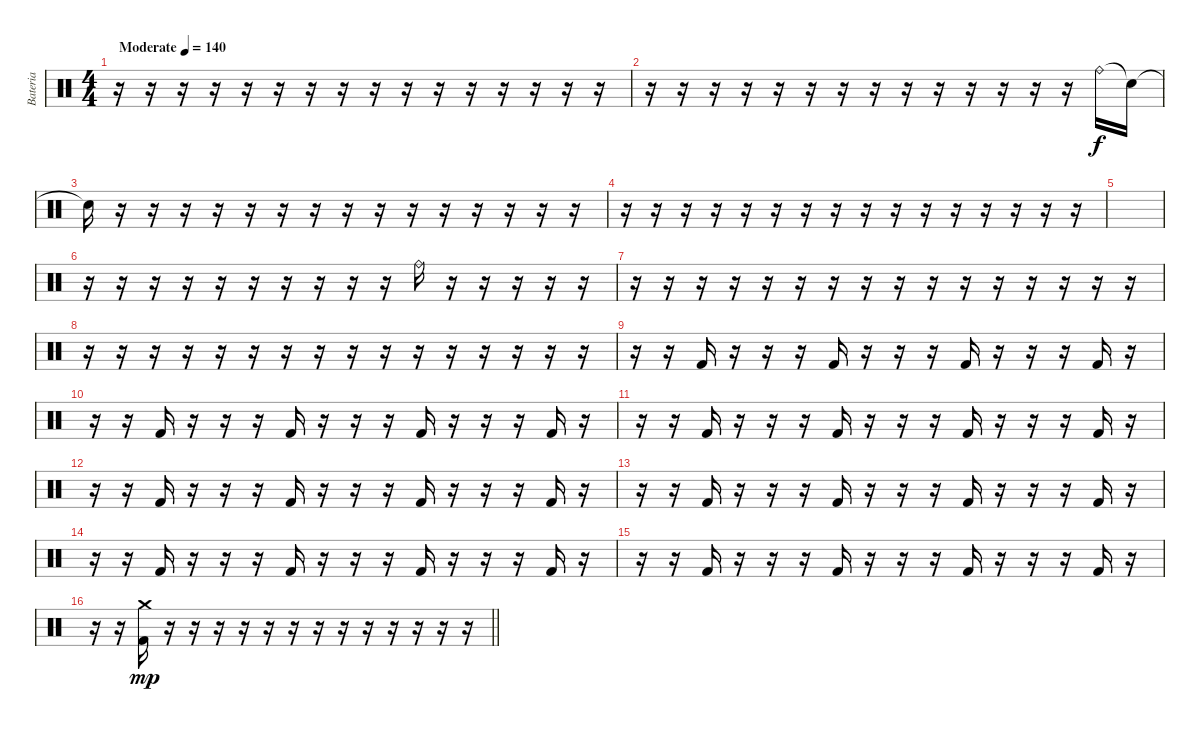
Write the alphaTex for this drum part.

\track ("Bateria" "Bateria") {instrument percussion}
\staff {score}
\articulation defaults
\ts (4 4)
\tempo (140 "Moderate")
\clef neutral
\ks c
r.16{dy f} r.16 r.16 r.16 r.16 r.16 r.16 r.16 r.16 r.16 r.16 r.16 r.16 r.16 r.16 r.16 |
r.16 r.16 r.16 r.16 r.16 r.16 r.16 r.16 r.16 r.16 r.16 r.16 r.16 r.16 "Ride (bell)".16 "Snare (hit)"{t}.16 |
"Snare (hit)"{t}.16 r.16 r.16 r.16 r.16 r.16 r.16 r.16 r.16 r.16 r.16 r.16 r.16 r.16 r.16 r.16 |
r.16 r.16 r.16 r.16 r.16 r.16 r.16 r.16 r.16 r.16 r.16 r.16 r.16 r.16 r.16 r.16 |
|
r.16 r.16 r.16 r.16 r.16 r.16 r.16 r.16 r.16 r.16 "Ride (bell)".16 r.16 r.16 r.16 r.16 r.16 |
r.16 r.16 r.16 r.16 r.16 r.16 r.16 r.16 r.16 r.16 r.16 r.16 r.16 r.16 r.16 r.16 |
r.16 r.16 r.16 r.16 r.16 r.16 r.16 r.16 r.16 r.16 r.16 r.16 r.16 r.16 r.16 r.16 |
r.16 r.16 "Kick (hit) 2".16 r.16 r.16 r.16 "Kick (hit) 2".16 r.16 r.16 r.16 "Kick (hit) 2".16 r.16 r.16 r.16 "Kick (hit) 2".16 r.16 |
r.16 r.16 "Kick (hit) 2".16 r.16 r.16 r.16 "Kick (hit) 2".16 r.16 r.16 r.16 "Kick (hit) 2".16 r.16 r.16 r.16 "Kick (hit) 2".16 r.16 |
r.16 r.16 "Kick (hit) 2".16 r.16 r.16 r.16 "Kick (hit) 2".16 r.16 r.16 r.16 "Kick (hit) 2".16 r.16 r.16 r.16 "Kick (hit) 2".16 r.16 |
r.16 r.16 "Kick (hit) 2".16 r.16 r.16 r.16 "Kick (hit) 2".16 r.16 r.16 r.16 "Kick (hit) 2".16 r.16 r.16 r.16 "Kick (hit) 2".16 r.16 |
r.16 r.16 "Kick (hit) 2".16 r.16 r.16 r.16 "Kick (hit) 2".16 r.16 r.16 r.16 "Kick (hit) 2".16 r.16 r.16 r.16 "Kick (hit) 2".16 r.16 |
r.16 r.16 "Kick (hit) 2".16 r.16 r.16 r.16 "Kick (hit) 2".16 r.16 r.16 r.16 "Kick (hit) 2".16 r.16 r.16 r.16 "Kick (hit) 2".16 r.16 |
r.16 r.16 "Kick (hit) 2".16 r.16 r.16 r.16 "Kick (hit) 2".16 r.16 r.16 r.16 "Kick (hit) 2".16 r.16 r.16 r.16 "Kick (hit) 2".16 r.16 |
\barLineRight lightlight
r.16 r.16 ("Crash medium (hit)" "Kick (hit) 2").16{dy mp} r.16 r.16 r.16 r.16 r.16 r.16 r.16 r.16 r.16 r.16 r.16 r.16 r.16
